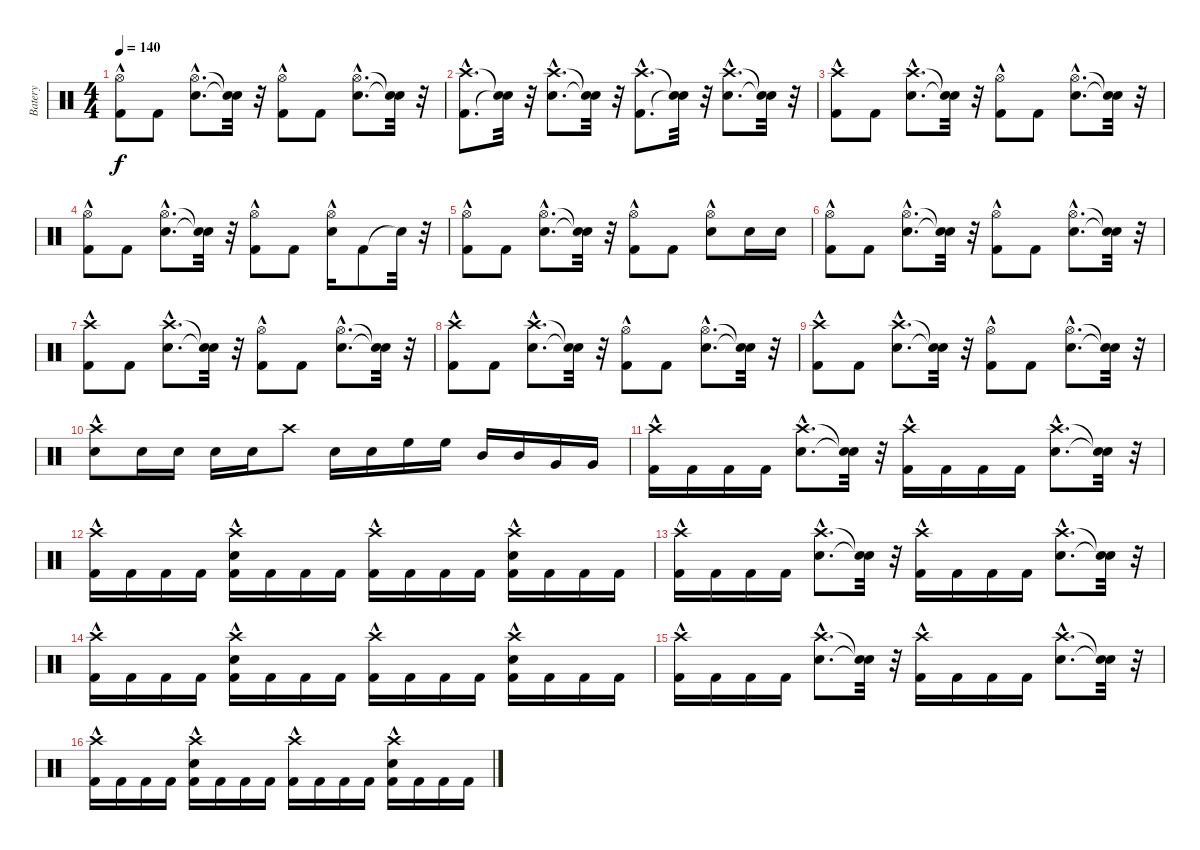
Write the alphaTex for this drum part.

\track ("Batery" "Batery") {instrument percussion}
\staff {score}
\articulation defaults
\ts (4 4)
\tempo 140
\clef neutral
\ks c
("Kick (hit) 2" "Hi-Hat (open)"{hac}).8{dy f} "Kick (hit) 2".8 ("Snare (hit) 2"{hac} "Hi-Hat (open)"{hac}).8{d} ("Snare (hit)"{t} "Snare (hit)"{t}).32 r.32 ("Kick (hit) 2" "Hi-Hat (open)"{hac}).8 "Kick (hit) 2".8 ("Hi-Hat (open)"{hac} "Snare (hit) 2"{hac}).8{d} ("Snare (hit)"{t} "Snare (hit)"{t}).32 r.32 |
("Crash high (hit)"{hac} "Kick (hit) 2"{hac}).8{d} ("Snare (hit)"{t} "Snare (hit)"{t}).32 r.32 ("Snare (hit) 2"{hac} "Crash high (hit)"{hac}).8{d} ("Snare (hit)"{t} "Snare (hit)"{t}).32 r.32 ("Crash high (hit)"{hac} "Kick (hit) 2"{hac}).8{d} ("Snare (hit)"{t} "Snare (hit)"{t}).32 r.32 ("Crash high (hit)"{hac} "Snare (hit) 2"{hac}).8{d} ("Snare (hit)"{t} "Snare (hit)"{t}).32 r.32 |
("Kick (hit) 2" "Crash high (hit)"{hac}).8 "Kick (hit) 2".8 ("Snare (hit) 2"{hac} "Crash high (hit)"{hac}).8{d} ("Snare (hit)"{t} "Snare (hit)"{t}).32 r.32 ("Kick (hit) 2" "Hi-Hat (open)"{hac}).8 "Kick (hit) 2".8 ("Hi-Hat (open)"{hac} "Snare (hit) 2"{hac}).8{d} ("Snare (hit)"{t} "Snare (hit)"{t}).32 r.32 |
("Kick (hit) 2" "Hi-Hat (open)"{hac}).8 "Kick (hit) 2".8 ("Snare (hit) 2"{hac} "Hi-Hat (open)"{hac}).8{d} ("Snare (hit)"{t} "Snare (hit)"{t}).32 r.32 ("Kick (hit) 2" "Hi-Hat (open)"{hac}).8 "Kick (hit) 2".8 ("Hi-Hat (open)"{hac} "Snare (hit) 2"{hac}).16 "Kick (hit) 2".8 "Snare (hit)"{t}.32 r.32 |
("Kick (hit) 2" "Hi-Hat (open)"{hac}).8 "Kick (hit) 2".8 ("Snare (hit) 2"{hac} "Hi-Hat (open)"{hac}).8{d} ("Snare (hit)"{t} "Snare (hit)"{t}).32 r.32 ("Kick (hit) 2" "Hi-Hat (open)"{hac}).8 "Kick (hit) 2".8 ("Hi-Hat (open)"{hac} "Snare (hit) 2").8 "Snare (hit) 2".16 "Snare (hit) 2".16 |
("Kick (hit) 2" "Hi-Hat (open)"{hac}).8 "Kick (hit) 2".8 ("Snare (hit) 2"{hac} "Hi-Hat (open)"{hac}).8{d} ("Snare (hit)"{t} "Snare (hit)"{t}).32 r.32 ("Kick (hit) 2" "Hi-Hat (open)"{hac}).8 "Kick (hit) 2".8 ("Hi-Hat (open)"{hac} "Snare (hit) 2"{hac}).8{d} ("Snare (hit)"{t} "Snare (hit)"{t}).32 r.32 |
("Kick (hit) 2" "Crash high (hit)"{hac}).8 "Kick (hit) 2".8 ("Snare (hit) 2"{hac} "Crash high (hit)"{hac}).8{d} ("Snare (hit)"{t} "Snare (hit)"{t}).32 r.32 ("Kick (hit) 2" "Hi-Hat (open)"{hac}).8 "Kick (hit) 2".8 ("Hi-Hat (open)"{hac} "Snare (hit) 2"{hac}).8{d} ("Snare (hit)"{t} "Snare (hit)"{t}).32 r.32 |
("Kick (hit) 2" "Crash high (hit)"{hac}).8 "Kick (hit) 2".8 ("Snare (hit) 2"{hac} "Crash high (hit)"{hac}).8{d} ("Snare (hit)"{t} "Snare (hit)"{t}).32 r.32 ("Kick (hit) 2" "Hi-Hat (open)"{hac}).8 "Kick (hit) 2".8 ("Hi-Hat (open)"{hac} "Snare (hit) 2"{hac}).8{d} ("Snare (hit)"{t} "Snare (hit)"{t}).32 r.32 |
("Kick (hit) 2" "Crash high (hit)"{hac}).8 "Kick (hit) 2".8 ("Snare (hit) 2"{hac} "Crash high (hit)"{hac}).8{d} ("Snare (hit)"{t} "Snare (hit)"{t}).32 r.32 ("Kick (hit) 2" "Hi-Hat (open)"{hac}).8 "Kick (hit) 2".8 ("Hi-Hat (open)"{hac} "Snare (hit) 2"{hac}).8{d} ("Snare (hit)"{t} "Snare (hit)"{t}).32 r.32 |
("Snare (hit) 2" "Crash high (hit)"{hac}).8 "Snare (hit) 2".16 "Snare (hit) 2".16 "Snare (hit) 2".16 "Snare (hit) 2".16 "Crash high (hit)".8 "Snare (hit) 2".16 "Snare (hit) 2".16 "High Floor Tom (hit)".16 "High Floor Tom (hit)".16 "Mid Tom (hit)".16 "Mid Tom (hit)".16 "Very Low Tom (hit)".16 "Very Low Tom (hit)".16 |
("Kick (hit) 2" "Crash high (hit)"{hac}).16 "Kick (hit) 2".16 "Kick (hit) 2".16 "Kick (hit) 2".16 ("Snare (hit) 2"{hac} "Crash high (hit)"{hac}).8{d} ("Snare (hit)"{t} "Snare (hit)"{t}).32 r.32 ("Kick (hit) 2" "Crash high (hit)"{hac}).16 "Kick (hit) 2".16 "Kick (hit) 2".16 "Kick (hit) 2".16 ("Snare (hit) 2"{hac} "Crash high (hit)"{hac}).8{d} ("Snare (hit)"{t} "Snare (hit)"{t}).32 r.32 |
("Kick (hit) 2" "Crash high (hit)"{hac}).16 "Kick (hit) 2".16 "Kick (hit) 2".16 "Kick (hit) 2".16 ("Kick (hit) 2" "Crash high (hit)"{hac} "Snare (hit) 2"{hac}).16 "Kick (hit) 2".16 "Kick (hit) 2".16 "Kick (hit) 2".16 ("Kick (hit) 2" "Crash high (hit)"{hac}).16 "Kick (hit) 2".16 "Kick (hit) 2".16 "Kick (hit) 2".16 ("Kick (hit) 2" "Crash high (hit)"{hac} "Snare (hit) 2"{hac}).16 "Kick (hit) 2".16 "Kick (hit) 2".16 "Kick (hit) 2".16 |
("Kick (hit) 2" "Crash high (hit)"{hac}).16 "Kick (hit) 2".16 "Kick (hit) 2".16 "Kick (hit) 2".16 ("Snare (hit) 2"{hac} "Crash high (hit)"{hac}).8{d} ("Snare (hit)"{t} "Snare (hit)"{t}).32 r.32 ("Kick (hit) 2" "Crash high (hit)"{hac}).16 "Kick (hit) 2".16 "Kick (hit) 2".16 "Kick (hit) 2".16 ("Snare (hit) 2"{hac} "Crash high (hit)"{hac}).8{d} ("Snare (hit)"{t} "Snare (hit)"{t}).32 r.32 |
("Kick (hit) 2" "Crash high (hit)"{hac}).16 "Kick (hit) 2".16 "Kick (hit) 2".16 "Kick (hit) 2".16 ("Kick (hit) 2" "Crash high (hit)"{hac} "Snare (hit) 2"{hac}).16 "Kick (hit) 2".16 "Kick (hit) 2".16 "Kick (hit) 2".16 ("Kick (hit) 2" "Crash high (hit)"{hac}).16 "Kick (hit) 2".16 "Kick (hit) 2".16 "Kick (hit) 2".16 ("Kick (hit) 2" "Crash high (hit)"{hac} "Snare (hit) 2"{hac}).16 "Kick (hit) 2".16 "Kick (hit) 2".16 "Kick (hit) 2".16 |
("Kick (hit) 2" "Crash high (hit)"{hac}).16 "Kick (hit) 2".16 "Kick (hit) 2".16 "Kick (hit) 2".16 ("Snare (hit) 2"{hac} "Crash high (hit)"{hac}).8{d} ("Snare (hit)"{t} "Snare (hit)"{t}).32 r.32 ("Kick (hit) 2" "Crash high (hit)"{hac}).16 "Kick (hit) 2".16 "Kick (hit) 2".16 "Kick (hit) 2".16 ("Snare (hit) 2"{hac} "Crash high (hit)"{hac}).8{d} ("Snare (hit)"{t} "Snare (hit)"{t}).32 r.32 |
("Kick (hit) 2" "Crash high (hit)"{hac}).16 "Kick (hit) 2".16 "Kick (hit) 2".16 "Kick (hit) 2".16 ("Kick (hit) 2" "Crash high (hit)"{hac} "Snare (hit) 2"{hac}).16 "Kick (hit) 2".16 "Kick (hit) 2".16 "Kick (hit) 2".16 ("Kick (hit) 2" "Crash high (hit)"{hac}).16 "Kick (hit) 2".16 "Kick (hit) 2".16 "Kick (hit) 2".16 ("Kick (hit) 2" "Crash high (hit)"{hac} "Snare (hit) 2"{hac}).16 "Kick (hit) 2".16 "Kick (hit) 2".16 "Kick (hit) 2".16
